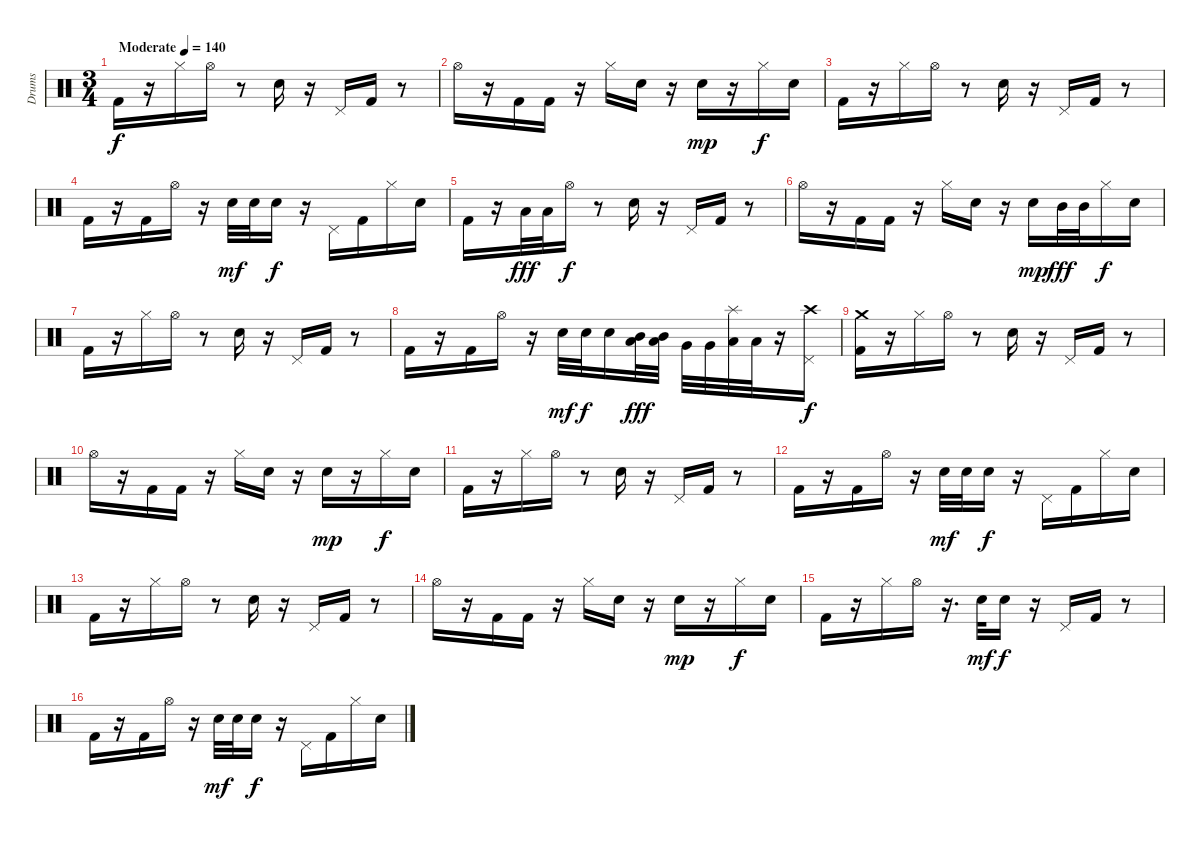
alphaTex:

\track ("Drums" "Drums") {instrument percussion}
\staff {score}
\articulation defaults
\ts (3 4)
\tempo (140 "Moderate")
\clef neutral
\ks c "Kick (hit) 2".16{dy f}
r.16 "Hi-Hat (closed)".16 "Hi-Hat (open)".16 r.8 "Electric Snare (hit)".16 r.16 "Pedal Hi-Hat (hit)".16 "Kick (hit) 2".16 r.8 |
"Hi-Hat (open)".16 r.16 "Kick (hit) 2".16 "Kick (hit) 2".16 r.16 "Hi-Hat (closed)".16 "Electric Snare (hit)".16 r.16 "Electric Snare (hit)".16{dy mp} r.16 "Hi-Hat (closed)".16{dy f} "Electric Snare (hit)".16 |
"Kick (hit) 2".16 r.16 "Hi-Hat (closed)".16 "Hi-Hat (open)".16 r.8 "Electric Snare (hit)".16 r.16 "Pedal Hi-Hat (hit)".16 "Kick (hit) 2".16 r.8 |
"Kick (hit) 2".16 r.16 "Kick (hit) 2".16 "Hi-Hat (open)".16 r.16 "Electric Snare (hit)".32{dy mf} "Electric Snare (hit)".32 "Electric Snare (hit)".16{dy f} r.16 "Pedal Hi-Hat (hit)".16 "Kick (hit) 2".16 "Hi-Hat (closed)".16 "Electric Snare (hit)".16 |
"Kick (hit) 2".16 r.16 "Low Tom (hit)".32{dy fff} "Low Tom (hit)".32 "Hi-Hat (open)".16{dy f} r.8 "Electric Snare (hit)".16 r.16 "Pedal Hi-Hat (hit)".16 "Kick (hit) 2".16 r.8 |
"Hi-Hat (open)".16 r.16 "Kick (hit) 2".16 "Kick (hit) 2".16 r.16 "Hi-Hat (closed)".16 "Electric Snare (hit)".16 r.16 "Electric Snare (hit)".16{dy mp} "Mid Tom (hit)".32{dy fff} "Mid Tom (hit)".32 "Hi-Hat (closed)".16{dy f} "Electric Snare (hit)".16 |
"Kick (hit) 2".16 r.16 "Hi-Hat (closed)".16 "Hi-Hat (open)".16 r.8 "Electric Snare (hit)".16 r.16 "Pedal Hi-Hat (hit)".16 "Kick (hit) 2".16 r.8 |
"Kick (hit) 2".16 r.16 "Kick (hit) 2".16 "Hi-Hat (open)".16 r.16 "Electric Snare (hit)".32{dy mf} "Electric Snare (hit)".32{dy f} "Electric Snare (hit)".16 ("Mid Tom (hit)" "Low Tom (hit)").32{dy fff} ("Mid Tom (hit)" "Low Tom (hit)").32 "Very Low Tom (hit)".32 "Very Low Tom (hit)".32 ("Splash (hit)" "Low Floor Tom (hit)").32 "Low Floor Tom (hit)".32 r.16 ("Pedal Hi-Hat (hit)" "Crash high (hit)").16{dy f} |
("Kick (hit) 2" "Crash medium (hit)").16 r.16 "Hi-Hat (closed)".16 "Hi-Hat (open)".16 r.8 "Electric Snare (hit)".16 r.16 "Pedal Hi-Hat (hit)".16 "Kick (hit) 2".16 r.8 |
"Hi-Hat (open)".16 r.16 "Kick (hit) 2".16 "Kick (hit) 2".16 r.16 "Hi-Hat (closed)".16 "Electric Snare (hit)".16 r.16 "Electric Snare (hit)".16{dy mp} r.16 "Hi-Hat (closed)".16{dy f} "Electric Snare (hit)".16 |
"Kick (hit) 2".16 r.16 "Hi-Hat (closed)".16 "Hi-Hat (open)".16 r.8 "Electric Snare (hit)".16 r.16 "Pedal Hi-Hat (hit)".16 "Kick (hit) 2".16 r.8 |
"Kick (hit) 2".16 r.16 "Kick (hit) 2".16 "Hi-Hat (open)".16 r.16 "Electric Snare (hit)".32{dy mf} "Electric Snare (hit)".32 "Electric Snare (hit)".16{dy f} r.16 "Pedal Hi-Hat (hit)".16 "Kick (hit) 2".16 "Hi-Hat (closed)".16 "Electric Snare (hit)".16 |
"Kick (hit) 2".16 r.16 "Hi-Hat (closed)".16 "Hi-Hat (open)".16 r.8 "Electric Snare (hit)".16 r.16 "Pedal Hi-Hat (hit)".16 "Kick (hit) 2".16 r.8 |
"Hi-Hat (open)".16 r.16 "Kick (hit) 2".16 "Kick (hit) 2".16 r.16 "Hi-Hat (closed)".16 "Electric Snare (hit)".16 r.16 "Electric Snare (hit)".16{dy mp} r.16 "Hi-Hat (closed)".16{dy f} "Electric Snare (hit)".16 |
"Kick (hit) 2".16 r.16 "Hi-Hat (closed)".16 "Hi-Hat (open)".16 r.16{d} "Electric Snare (hit)".32{dy mf} "Electric Snare (hit)".16{dy f} r.16 "Pedal Hi-Hat (hit)".16 "Kick (hit) 2".16 r.8 |
"Kick (hit) 2".16 r.16 "Kick (hit) 2".16 "Hi-Hat (open)".16 r.16 "Electric Snare (hit)".32{dy mf} "Electric Snare (hit)".32 "Electric Snare (hit)".16{dy f} r.16 "Pedal Hi-Hat (hit)".16 "Kick (hit) 2".16 "Hi-Hat (closed)".16 "Electric Snare (hit)".16
